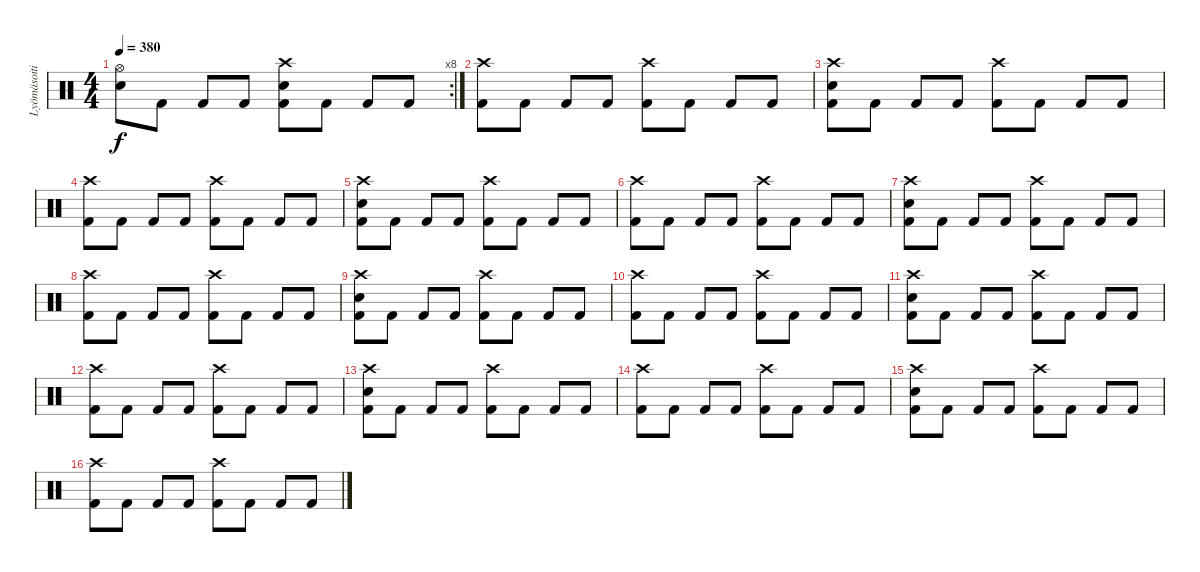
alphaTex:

\track ("Lyömäsoitin" "Lyömäsoiti") {instrument percussion}
\staff {score}
\articulation defaults
\rc 8
\ts (4 4)
\tempo 380
\clef neutral
\ks c
("Hi-Hat (open)" "Electric Snare (hit)").8{dy f} "Kick (hit) 2".8 "Kick (hit) 2".8 "Kick (hit) 2".8 ("Crash high (hit)" "Electric Snare (hit)" "Kick (hit) 2").8 "Kick (hit) 2".8 "Kick (hit) 2".8 "Kick (hit) 2".8 |
("Crash high (hit)" "Kick (hit) 2").8 "Kick (hit) 2".8 "Kick (hit) 2".8 "Kick (hit) 2".8 ("Crash high (hit)" "Kick (hit) 2").8 "Kick (hit) 2".8 "Kick (hit) 2".8 "Kick (hit) 2".8 |
("Crash high (hit)" "Electric Snare (hit)" "Kick (hit) 2").8 "Kick (hit) 2".8 "Kick (hit) 2".8 "Kick (hit) 2".8 ("Crash high (hit)" "Kick (hit) 2").8 "Kick (hit) 2".8 "Kick (hit) 2".8 "Kick (hit) 2".8 |
("Crash high (hit)" "Kick (hit) 2").8 "Kick (hit) 2".8 "Kick (hit) 2".8 "Kick (hit) 2".8 ("Crash high (hit)" "Kick (hit) 2").8 "Kick (hit) 2".8 "Kick (hit) 2".8 "Kick (hit) 2".8 |
("Crash high (hit)" "Electric Snare (hit)" "Kick (hit) 2").8 "Kick (hit) 2".8 "Kick (hit) 2".8 "Kick (hit) 2".8 ("Crash high (hit)" "Kick (hit) 2").8 "Kick (hit) 2".8 "Kick (hit) 2".8 "Kick (hit) 2".8 |
("Crash high (hit)" "Kick (hit) 2").8 "Kick (hit) 2".8 "Kick (hit) 2".8 "Kick (hit) 2".8 ("Crash high (hit)" "Kick (hit) 2").8 "Kick (hit) 2".8 "Kick (hit) 2".8 "Kick (hit) 2".8 |
("Crash high (hit)" "Electric Snare (hit)" "Kick (hit) 2").8 "Kick (hit) 2".8 "Kick (hit) 2".8 "Kick (hit) 2".8 ("Crash high (hit)" "Kick (hit) 2").8 "Kick (hit) 2".8 "Kick (hit) 2".8 "Kick (hit) 2".8 |
("Crash high (hit)" "Kick (hit) 2").8 "Kick (hit) 2".8 "Kick (hit) 2".8 "Kick (hit) 2".8 ("Crash high (hit)" "Kick (hit) 2").8 "Kick (hit) 2".8 "Kick (hit) 2".8 "Kick (hit) 2".8 |
("Crash high (hit)" "Electric Snare (hit)" "Kick (hit) 2").8 "Kick (hit) 2".8 "Kick (hit) 2".8 "Kick (hit) 2".8 ("Crash high (hit)" "Kick (hit) 2").8 "Kick (hit) 2".8 "Kick (hit) 2".8 "Kick (hit) 2".8 |
("Crash high (hit)" "Kick (hit) 2").8 "Kick (hit) 2".8 "Kick (hit) 2".8 "Kick (hit) 2".8 ("Crash high (hit)" "Kick (hit) 2").8 "Kick (hit) 2".8 "Kick (hit) 2".8 "Kick (hit) 2".8 |
("Crash high (hit)" "Electric Snare (hit)" "Kick (hit) 2").8 "Kick (hit) 2".8 "Kick (hit) 2".8 "Kick (hit) 2".8 ("Crash high (hit)" "Kick (hit) 2").8 "Kick (hit) 2".8 "Kick (hit) 2".8 "Kick (hit) 2".8 |
("Crash high (hit)" "Kick (hit) 2").8 "Kick (hit) 2".8 "Kick (hit) 2".8 "Kick (hit) 2".8 ("Crash high (hit)" "Kick (hit) 2").8 "Kick (hit) 2".8 "Kick (hit) 2".8 "Kick (hit) 2".8 |
("Crash high (hit)" "Electric Snare (hit)" "Kick (hit) 2").8 "Kick (hit) 2".8 "Kick (hit) 2".8 "Kick (hit) 2".8 ("Crash high (hit)" "Kick (hit) 2").8 "Kick (hit) 2".8 "Kick (hit) 2".8 "Kick (hit) 2".8 |
("Crash high (hit)" "Kick (hit) 2").8 "Kick (hit) 2".8 "Kick (hit) 2".8 "Kick (hit) 2".8 ("Crash high (hit)" "Kick (hit) 2").8 "Kick (hit) 2".8 "Kick (hit) 2".8 "Kick (hit) 2".8 |
("Crash high (hit)" "Electric Snare (hit)" "Kick (hit) 2").8 "Kick (hit) 2".8 "Kick (hit) 2".8 "Kick (hit) 2".8 ("Crash high (hit)" "Kick (hit) 2").8 "Kick (hit) 2".8 "Kick (hit) 2".8 "Kick (hit) 2".8 |
("Crash high (hit)" "Kick (hit) 2").8 "Kick (hit) 2".8 "Kick (hit) 2".8 "Kick (hit) 2".8 ("Crash high (hit)" "Kick (hit) 2").8 "Kick (hit) 2".8 "Kick (hit) 2".8 "Kick (hit) 2".8
